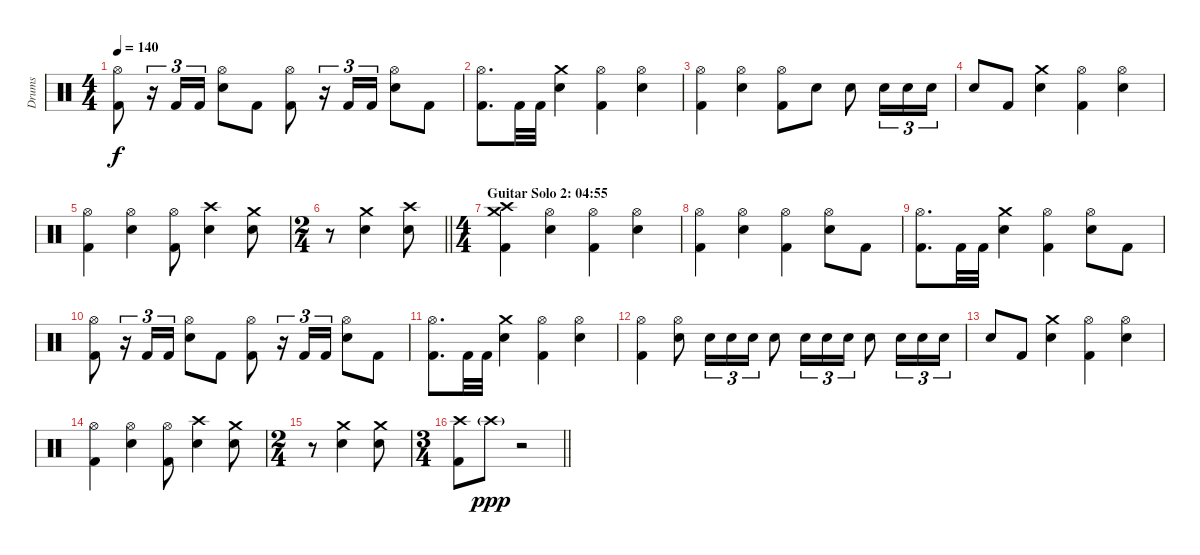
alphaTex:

\track ("Drums" "Drums") {instrument percussion}
\staff {score}
\articulation defaults
\ts (4 4)
\tempo 140
\clef neutral
\ks c
("Hi-Hat (open)" "Kick (hit) 2").8{dy f} r.16{tu (3 2)} "Kick (hit) 2".16{tu (3 2)} "Kick (hit) 2".16{tu (3 2)} ("Hi-Hat (open)" "Electric Snare (hit)").8 "Kick (hit) 2".8 ("Hi-Hat (open)" "Kick (hit) 2").8 r.16{tu (3 2)} "Kick (hit) 2".16{tu (3 2)} "Kick (hit) 2".16{tu (3 2)} ("Hi-Hat (open)" "Electric Snare (hit)").8 "Kick (hit) 2".8 |
("Hi-Hat (open)" "Kick (hit) 2").8{d} "Kick (hit) 2".32 "Kick (hit) 2".32 ("Crash medium (hit)" "Electric Snare (hit)").4 ("Hi-Hat (open)" "Kick (hit) 2").4 ("Hi-Hat (open)" "Electric Snare (hit)").4 |
("Hi-Hat (open)" "Kick (hit) 2").4 ("Hi-Hat (open)" "Electric Snare (hit)").4 ("Hi-Hat (open)" "Kick (hit) 2").8 "Electric Snare (hit)".8 "Electric Snare (hit)".8 "Electric Snare (hit)".16{tu (3 2)} "Electric Snare (hit)".16{tu (3 2)} "Electric Snare (hit)".16{tu (3 2)} |
"Electric Snare (hit)".8 "Kick (hit) 2".8 ("Crash medium (hit)" "Electric Snare (hit)").4 ("Hi-Hat (open)" "Kick (hit) 2").4 ("Hi-Hat (open)" "Electric Snare (hit)").4 |
("Hi-Hat (open)" "Kick (hit) 2").4 ("Hi-Hat (open)" "Electric Snare (hit)").4 ("Hi-Hat (open)" "Kick (hit) 2").8 ("Crash high (hit)" "Electric Snare (hit)").4 ("Crash medium (hit)" "Electric Snare (hit)").8 |
\ts (2 4)
\barLineRight lightlight
r.8 ("Crash medium (hit)" "Electric Snare (hit)").4 ("Crash high (hit)" "Electric Snare (hit)").8 |
\ts (4 4)
\section ("" "Guitar Solo 2: 04:55")
("Crash high (hit)" "Crash medium (hit)" "Kick (hit) 2").4 ("Hi-Hat (open)" "Electric Snare (hit)").4 ("Hi-Hat (open)" "Kick (hit) 2").4 ("Hi-Hat (open)" "Electric Snare (hit)").4 |
("Hi-Hat (open)" "Kick (hit) 2").4 ("Hi-Hat (open)" "Electric Snare (hit)").4 ("Hi-Hat (open)" "Kick (hit) 2").4 ("Hi-Hat (open)" "Electric Snare (hit)").8 "Kick (hit) 2".8 |
("Hi-Hat (open)" "Kick (hit) 2").8{d} "Kick (hit) 2".32 "Kick (hit) 2".32 ("Crash medium (hit)" "Electric Snare (hit)").4 ("Hi-Hat (open)" "Kick (hit) 2").4 ("Hi-Hat (open)" "Electric Snare (hit)").8 "Kick (hit) 2".8 |
("Hi-Hat (open)" "Kick (hit) 2").8 r.16{tu (3 2)} "Kick (hit) 2".16{tu (3 2)} "Kick (hit) 2".16{tu (3 2)} ("Hi-Hat (open)" "Electric Snare (hit)").8 "Kick (hit) 2".8 ("Hi-Hat (open)" "Kick (hit) 2").8 r.16{tu (3 2)} "Kick (hit) 2".16{tu (3 2)} "Kick (hit) 2".16{tu (3 2)} ("Hi-Hat (open)" "Electric Snare (hit)").8 "Kick (hit) 2".8 |
("Hi-Hat (open)" "Kick (hit) 2").8{d} "Kick (hit) 2".32 "Kick (hit) 2".32 ("Crash medium (hit)" "Electric Snare (hit)").4 ("Hi-Hat (open)" "Kick (hit) 2").4 ("Hi-Hat (open)" "Electric Snare (hit)").4 |
("Hi-Hat (open)" "Kick (hit) 2").4 ("Hi-Hat (open)" "Electric Snare (hit)").8 "Electric Snare (hit)".16{tu (3 2)} "Electric Snare (hit)".16{tu (3 2)} "Electric Snare (hit)".16{tu (3 2)} "Electric Snare (hit)".8 "Electric Snare (hit)".16{tu (3 2)} "Electric Snare (hit)".16{tu (3 2)} "Electric Snare (hit)".16{tu (3 2)} "Electric Snare (hit)".8 "Electric Snare (hit)".16{tu (3 2)} "Electric Snare (hit)".16{tu (3 2)} "Electric Snare (hit)".16{tu (3 2)} |
"Electric Snare (hit)".8 "Kick (hit) 2".8 ("Crash medium (hit)" "Electric Snare (hit)").4 ("Hi-Hat (open)" "Kick (hit) 2").4 ("Hi-Hat (open)" "Electric Snare (hit)").4 |
("Hi-Hat (open)" "Kick (hit) 2").4 ("Hi-Hat (open)" "Electric Snare (hit)").4 ("Hi-Hat (open)" "Kick (hit) 2").8 ("Crash high (hit)" "Electric Snare (hit)").4 ("Crash medium (hit)" "Electric Snare (hit)").8 |
\ts (2 4)
r.8 ("Crash medium (hit)" "Electric Snare (hit)").4 ("Crash medium (hit)" "Electric Snare (hit)").8 |
\ts (3 4)
\barLineRight lightlight
("Crash high (hit)" "Kick (hit) 2").8 "Crash high (hit)"{g}.8{dy ppp} r.2
